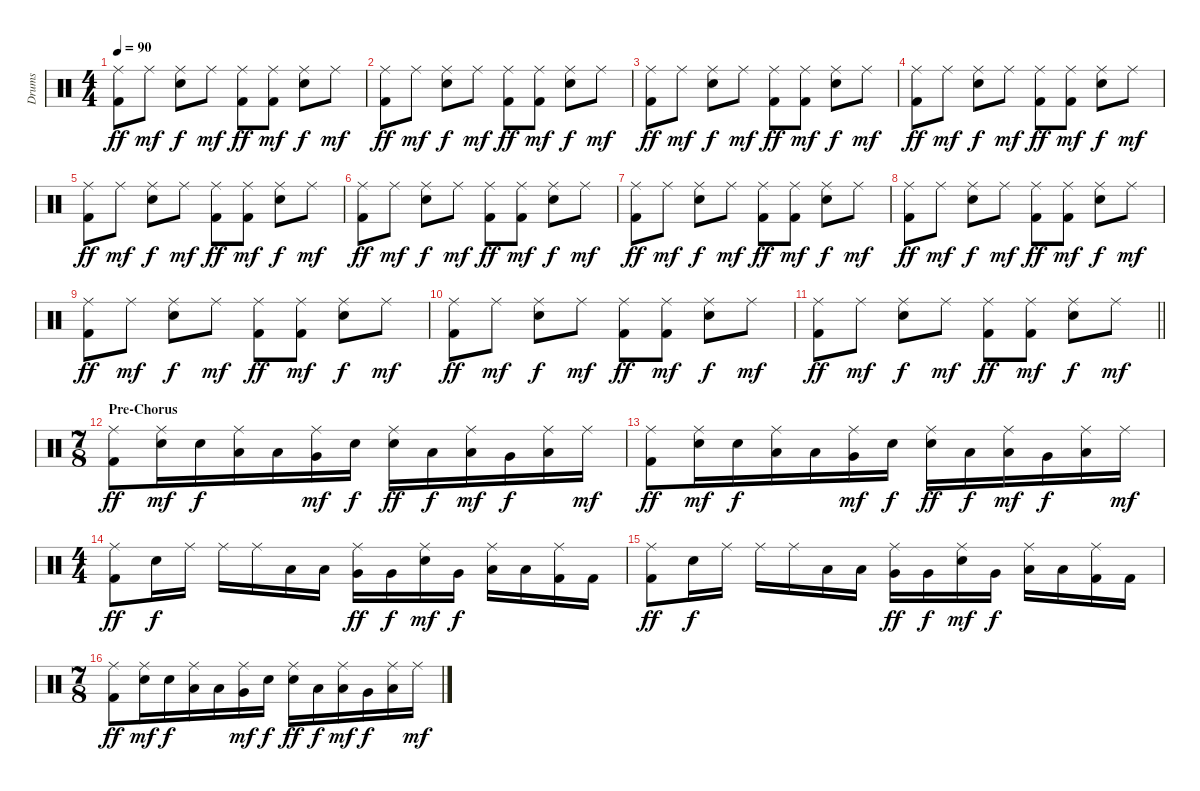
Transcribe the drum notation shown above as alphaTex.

\track ("Drums" "Drums") {instrument percussion}
\staff {score}
\articulation defaults
\ts (4 4)
\tempo 90
\clef neutral
\ks c
("Ride (middle)" "Kick (hit) 2").8{dy ff} "Ride (middle)".8{dy mf} ("Ride (middle)" "Electric Snare (hit)").8{dy f} "Ride (middle)".8{dy mf} ("Ride (middle)" "Kick (hit) 2").8{dy ff} ("Ride (middle)" "Kick (hit) 2").8{dy mf} ("Ride (middle)" "Electric Snare (hit)").8{dy f} "Ride (middle)".8{dy mf} |
("Ride (middle)" "Kick (hit) 2").8{dy ff} "Ride (middle)".8{dy mf} ("Ride (middle)" "Electric Snare (hit)").8{dy f} "Ride (middle)".8{dy mf} ("Ride (middle)" "Kick (hit) 2").8{dy ff} ("Ride (middle)" "Kick (hit) 2").8{dy mf} ("Ride (middle)" "Electric Snare (hit)").8{dy f} "Ride (middle)".8{dy mf} |
("Ride (middle)" "Kick (hit) 2").8{dy ff} "Ride (middle)".8{dy mf} ("Ride (middle)" "Electric Snare (hit)").8{dy f} "Ride (middle)".8{dy mf} ("Ride (middle)" "Kick (hit) 2").8{dy ff} ("Ride (middle)" "Kick (hit) 2").8{dy mf} ("Ride (middle)" "Electric Snare (hit)").8{dy f} "Ride (middle)".8{dy mf} |
("Ride (middle)" "Kick (hit) 2").8{dy ff} "Ride (middle)".8{dy mf} ("Ride (middle)" "Electric Snare (hit)").8{dy f} "Ride (middle)".8{dy mf} ("Ride (middle)" "Kick (hit) 2").8{dy ff} ("Ride (middle)" "Kick (hit) 2").8{dy mf} ("Ride (middle)" "Electric Snare (hit)").8{dy f} "Ride (middle)".8{dy mf} |
("Ride (middle)" "Kick (hit) 2").8{dy ff} "Ride (middle)".8{dy mf} ("Ride (middle)" "Electric Snare (hit)").8{dy f} "Ride (middle)".8{dy mf} ("Ride (middle)" "Kick (hit) 2").8{dy ff} ("Ride (middle)" "Kick (hit) 2").8{dy mf} ("Ride (middle)" "Electric Snare (hit)").8{dy f} "Ride (middle)".8{dy mf} |
("Ride (middle)" "Kick (hit) 2").8{dy ff} "Ride (middle)".8{dy mf} ("Ride (middle)" "Electric Snare (hit)").8{dy f} "Ride (middle)".8{dy mf} ("Ride (middle)" "Kick (hit) 2").8{dy ff} ("Ride (middle)" "Kick (hit) 2").8{dy mf} ("Ride (middle)" "Electric Snare (hit)").8{dy f} "Ride (middle)".8{dy mf} |
("Ride (middle)" "Kick (hit) 2").8{dy ff} "Ride (middle)".8{dy mf} ("Ride (middle)" "Electric Snare (hit)").8{dy f} "Ride (middle)".8{dy mf} ("Ride (middle)" "Kick (hit) 2").8{dy ff} ("Ride (middle)" "Kick (hit) 2").8{dy mf} ("Ride (middle)" "Electric Snare (hit)").8{dy f} "Ride (middle)".8{dy mf} |
("Ride (middle)" "Kick (hit) 2").8{dy ff} "Ride (middle)".8{dy mf} ("Ride (middle)" "Electric Snare (hit)").8{dy f} "Ride (middle)".8{dy mf} ("Ride (middle)" "Kick (hit) 2").8{dy ff} ("Ride (middle)" "Kick (hit) 2").8{dy mf} ("Ride (middle)" "Electric Snare (hit)").8{dy f} "Ride (middle)".8{dy mf} |
("Ride (middle)" "Kick (hit) 2").8{dy ff} "Ride (middle)".8{dy mf} ("Ride (middle)" "Electric Snare (hit)").8{dy f} "Ride (middle)".8{dy mf} ("Ride (middle)" "Kick (hit) 2").8{dy ff} ("Ride (middle)" "Kick (hit) 2").8{dy mf} ("Ride (middle)" "Electric Snare (hit)").8{dy f} "Ride (middle)".8{dy mf} |
("Ride (middle)" "Kick (hit) 2").8{dy ff} "Ride (middle)".8{dy mf} ("Ride (middle)" "Electric Snare (hit)").8{dy f} "Ride (middle)".8{dy mf} ("Ride (middle)" "Kick (hit) 2").8{dy ff} ("Ride (middle)" "Kick (hit) 2").8{dy mf} ("Ride (middle)" "Electric Snare (hit)").8{dy f} "Ride (middle)".8{dy mf} |
\barLineRight lightlight
("Ride (middle)" "Kick (hit) 2").8{dy ff} "Ride (middle)".8{dy mf} ("Ride (middle)" "Electric Snare (hit)").8{dy f} "Ride (middle)".8{dy mf} ("Ride (middle)" "Kick (hit) 2").8{dy ff} ("Ride (middle)" "Kick (hit) 2").8{dy mf} ("Ride (middle)" "Electric Snare (hit)").8{dy f} "Ride (middle)".8{dy mf} |
\ts (7 8)
\section ("" "Pre-Chorus")
("Ride (middle)" "Kick (hit) 2").8{dy ff} ("Ride (middle)" "Electric Snare (hit)").16{dy mf} "Electric Snare (hit)".16{dy f} ("Ride (middle)" "Low Tom (hit)").16 "Low Tom (hit)".16 ("Ride (middle)" "Very Low Tom (hit)").16{dy mf} "Electric Snare (hit)".16{dy f} ("Ride (middle)" "Electric Snare (hit)").16{dy ff} "Low Tom (hit)".16{dy f} ("Ride (middle)" "Low Tom (hit)").16{dy mf} "Very Low Tom (hit)".16{dy f} ("Ride (middle)" "Low Tom (hit)").16 "Ride (middle)".16{dy mf} |
("Ride (middle)" "Kick (hit) 2").8{dy ff} ("Ride (middle)" "Electric Snare (hit)").16{dy mf} "Electric Snare (hit)".16{dy f} ("Ride (middle)" "Low Tom (hit)").16 "Low Tom (hit)".16 ("Ride (middle)" "Very Low Tom (hit)").16{dy mf} "Electric Snare (hit)".16{dy f} ("Ride (middle)" "Electric Snare (hit)").16{dy ff} "Low Tom (hit)".16{dy f} ("Ride (middle)" "Low Tom (hit)").16{dy mf} "Very Low Tom (hit)".16{dy f} ("Ride (middle)" "Low Tom (hit)").16 "Ride (middle)".16{dy mf} |
\ts (4 4)
("Ride (middle)" "Kick (hit) 2").8{dy ff} "Electric Snare (hit)".16{dy f} "Ride (middle)".16 "Ride (middle)".16 "Ride (middle)".16 "Low Tom (hit)".16 "Low Tom (hit)".16 ("Ride (middle)" "Very Low Tom (hit)").16{dy ff} "Very Low Tom (hit)".16{dy f} ("Ride (middle)" "Electric Snare (hit)").16{dy mf} "Very Low Tom (hit)".16{dy f} ("Ride (middle)" "Low Floor Tom (hit)").16 "Low Floor Tom (hit)".16 ("Ride (middle)" "Kick (hit) 2").16 "Kick (hit) 2".16 |
("Ride (middle)" "Kick (hit) 2").8{dy ff} "Electric Snare (hit)".16{dy f} "Ride (middle)".16 "Ride (middle)".16 "Ride (middle)".16 "Low Tom (hit)".16 "Low Tom (hit)".16 ("Ride (middle)" "Very Low Tom (hit)").16{dy ff} "Very Low Tom (hit)".16{dy f} ("Ride (middle)" "Electric Snare (hit)").16{dy mf} "Very Low Tom (hit)".16{dy f} ("Ride (middle)" "Low Floor Tom (hit)").16 "Low Floor Tom (hit)".16 ("Ride (middle)" "Kick (hit) 2").16 "Kick (hit) 2".16 |
\ts (7 8)
("Ride (middle)" "Kick (hit) 2").8{dy ff} ("Ride (middle)" "Electric Snare (hit)").16{dy mf} "Electric Snare (hit)".16{dy f} ("Ride (middle)" "Low Tom (hit)").16 "Low Tom (hit)".16 ("Ride (middle)" "Very Low Tom (hit)").16{dy mf} "Electric Snare (hit)".16{dy f} ("Ride (middle)" "Electric Snare (hit)").16{dy ff} "Low Tom (hit)".16{dy f} ("Ride (middle)" "Low Tom (hit)").16{dy mf} "Very Low Tom (hit)".16{dy f} ("Ride (middle)" "Low Tom (hit)").16 "Ride (middle)".16{dy mf}
